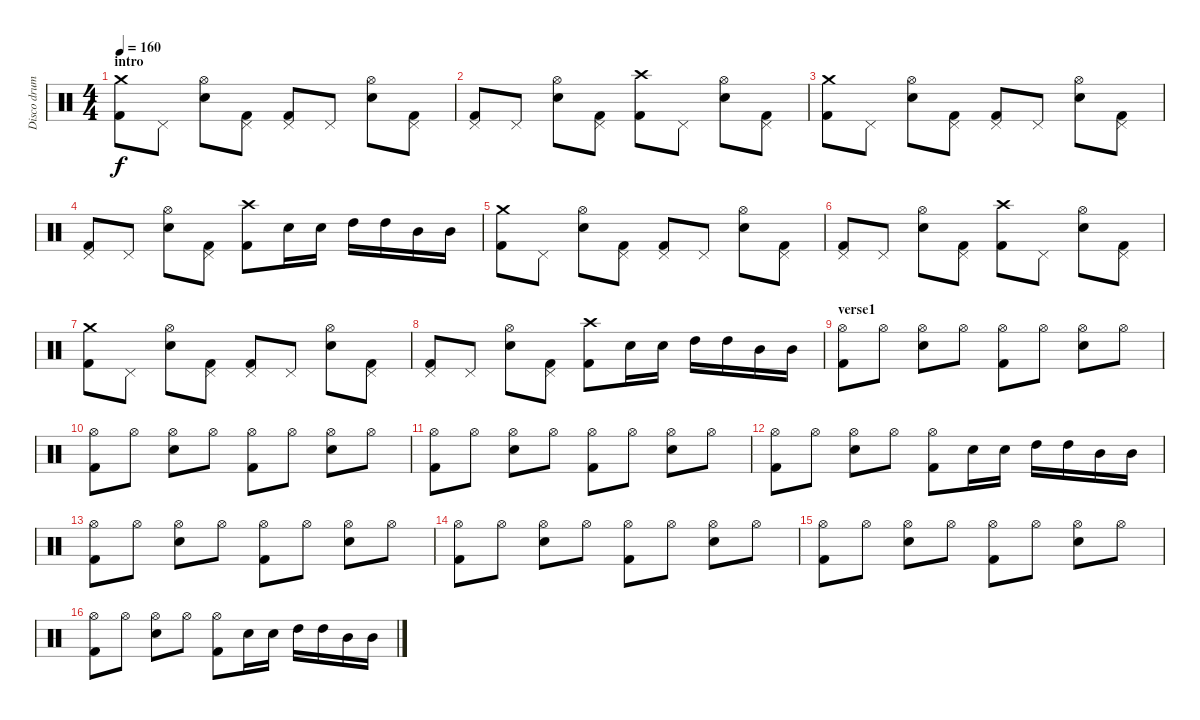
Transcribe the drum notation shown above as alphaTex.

\track ("Disco drum" "Disco drum") {instrument percussion}
\staff {score}
\articulation defaults
\ts (4 4)
\section ("" "intro")
\tempo 160
\clef neutral
\ks c
("Crash medium (hit)" "Kick (hit) 2").8{dy f} "Pedal Hi-Hat (hit)".8 ("Hi-Hat (open)" "Electric Snare (hit)").8 ("Pedal Hi-Hat (hit)" "Kick (hit) 2").8 ("Pedal Hi-Hat (hit)" "Kick (hit) 2").8 "Pedal Hi-Hat (hit)".8 ("Hi-Hat (open)" "Electric Snare (hit)").8 ("Pedal Hi-Hat (hit)" "Kick (hit) 2").8 |
("Pedal Hi-Hat (hit)" "Kick (hit) 2").8 "Pedal Hi-Hat (hit)".8 ("Hi-Hat (open)" "Electric Snare (hit)").8 ("Pedal Hi-Hat (hit)" "Kick (hit) 2").8 ("Crash high (hit)" "Kick (hit) 2").8 "Pedal Hi-Hat (hit)".8 ("Hi-Hat (open)" "Electric Snare (hit)").8 ("Pedal Hi-Hat (hit)" "Kick (hit) 2").8 |
("Crash medium (hit)" "Kick (hit) 2").8 "Pedal Hi-Hat (hit)".8 ("Hi-Hat (open)" "Electric Snare (hit)").8 ("Pedal Hi-Hat (hit)" "Kick (hit) 2").8 ("Pedal Hi-Hat (hit)" "Kick (hit) 2").8 "Pedal Hi-Hat (hit)".8 ("Hi-Hat (open)" "Electric Snare (hit)").8 ("Pedal Hi-Hat (hit)" "Kick (hit) 2").8 |
("Pedal Hi-Hat (hit)" "Kick (hit) 2").8 "Pedal Hi-Hat (hit)".8 ("Hi-Hat (open)" "Electric Snare (hit)").8 ("Pedal Hi-Hat (hit)" "Kick (hit) 2").8 ("Crash high (hit)" "Kick (hit) 2").8 "Electric Snare (hit)".16 "Electric Snare (hit)".16 "High Tom (hit)".16 "High Tom (hit)".16 "Mid Tom (hit)".16 "Mid Tom (hit)".16 |
("Crash medium (hit)" "Kick (hit) 2").8 "Pedal Hi-Hat (hit)".8 ("Hi-Hat (open)" "Electric Snare (hit)").8 ("Pedal Hi-Hat (hit)" "Kick (hit) 2").8 ("Pedal Hi-Hat (hit)" "Kick (hit) 2").8 "Pedal Hi-Hat (hit)".8 ("Hi-Hat (open)" "Electric Snare (hit)").8 ("Pedal Hi-Hat (hit)" "Kick (hit) 2").8 |
("Pedal Hi-Hat (hit)" "Kick (hit) 2").8 "Pedal Hi-Hat (hit)".8 ("Hi-Hat (open)" "Electric Snare (hit)").8 ("Pedal Hi-Hat (hit)" "Kick (hit) 2").8 ("Crash high (hit)" "Kick (hit) 2").8 "Pedal Hi-Hat (hit)".8 ("Hi-Hat (open)" "Electric Snare (hit)").8 ("Pedal Hi-Hat (hit)" "Kick (hit) 2").8 |
("Crash medium (hit)" "Kick (hit) 2").8 "Pedal Hi-Hat (hit)".8 ("Hi-Hat (open)" "Electric Snare (hit)").8 ("Pedal Hi-Hat (hit)" "Kick (hit) 2").8 ("Pedal Hi-Hat (hit)" "Kick (hit) 2").8 "Pedal Hi-Hat (hit)".8 ("Hi-Hat (open)" "Electric Snare (hit)").8 ("Pedal Hi-Hat (hit)" "Kick (hit) 2").8 |
("Pedal Hi-Hat (hit)" "Kick (hit) 2").8 "Pedal Hi-Hat (hit)".8 ("Hi-Hat (open)" "Electric Snare (hit)").8 ("Pedal Hi-Hat (hit)" "Kick (hit) 2").8 ("Crash high (hit)" "Kick (hit) 2").8 "Electric Snare (hit)".16 "Electric Snare (hit)".16 "High Tom (hit)".16 "High Tom (hit)".16 "Mid Tom (hit)".16 "Mid Tom (hit)".16 |
\section ("" "verse1")
("Hi-Hat (open)" "Kick (hit) 2").8 "Hi-Hat (open)".8 ("Hi-Hat (open)" "Electric Snare (hit)").8 "Hi-Hat (open)".8 ("Hi-Hat (open)" "Kick (hit) 2").8 "Hi-Hat (open)".8 ("Hi-Hat (open)" "Electric Snare (hit)").8 "Hi-Hat (open)".8 |
("Hi-Hat (open)" "Kick (hit) 2").8 "Hi-Hat (open)".8 ("Hi-Hat (open)" "Electric Snare (hit)").8 "Hi-Hat (open)".8 ("Hi-Hat (open)" "Kick (hit) 2").8 "Hi-Hat (open)".8 ("Hi-Hat (open)" "Electric Snare (hit)").8 "Hi-Hat (open)".8 |
("Hi-Hat (open)" "Kick (hit) 2").8 "Hi-Hat (open)".8 ("Hi-Hat (open)" "Electric Snare (hit)").8 "Hi-Hat (open)".8 ("Hi-Hat (open)" "Kick (hit) 2").8 "Hi-Hat (open)".8 ("Hi-Hat (open)" "Electric Snare (hit)").8 "Hi-Hat (open)".8 |
("Hi-Hat (open)" "Kick (hit) 2").8 "Hi-Hat (open)".8 ("Hi-Hat (open)" "Electric Snare (hit)").8 "Hi-Hat (open)".8 ("Hi-Hat (open)" "Kick (hit) 2").8 "Electric Snare (hit)".16 "Electric Snare (hit)".16 "High Tom (hit)".16 "High Tom (hit)".16 "Mid Tom (hit)".16 "Mid Tom (hit)".16 |
("Hi-Hat (open)" "Kick (hit) 2").8 "Hi-Hat (open)".8 ("Hi-Hat (open)" "Electric Snare (hit)").8 "Hi-Hat (open)".8 ("Hi-Hat (open)" "Kick (hit) 2").8 "Hi-Hat (open)".8 ("Hi-Hat (open)" "Electric Snare (hit)").8 "Hi-Hat (open)".8 |
("Hi-Hat (open)" "Kick (hit) 2").8 "Hi-Hat (open)".8 ("Hi-Hat (open)" "Electric Snare (hit)").8 "Hi-Hat (open)".8 ("Hi-Hat (open)" "Kick (hit) 2").8 "Hi-Hat (open)".8 ("Hi-Hat (open)" "Electric Snare (hit)").8 "Hi-Hat (open)".8 |
("Hi-Hat (open)" "Kick (hit) 2").8 "Hi-Hat (open)".8 ("Hi-Hat (open)" "Electric Snare (hit)").8 "Hi-Hat (open)".8 ("Hi-Hat (open)" "Kick (hit) 2").8 "Hi-Hat (open)".8 ("Hi-Hat (open)" "Electric Snare (hit)").8 "Hi-Hat (open)".8 |
("Hi-Hat (open)" "Kick (hit) 2").8 "Hi-Hat (open)".8 ("Hi-Hat (open)" "Electric Snare (hit)").8 "Hi-Hat (open)".8 ("Hi-Hat (open)" "Kick (hit) 2").8 "Electric Snare (hit)".16 "Electric Snare (hit)".16 "High Tom (hit)".16 "High Tom (hit)".16 "Mid Tom (hit)".16 "Mid Tom (hit)".16
